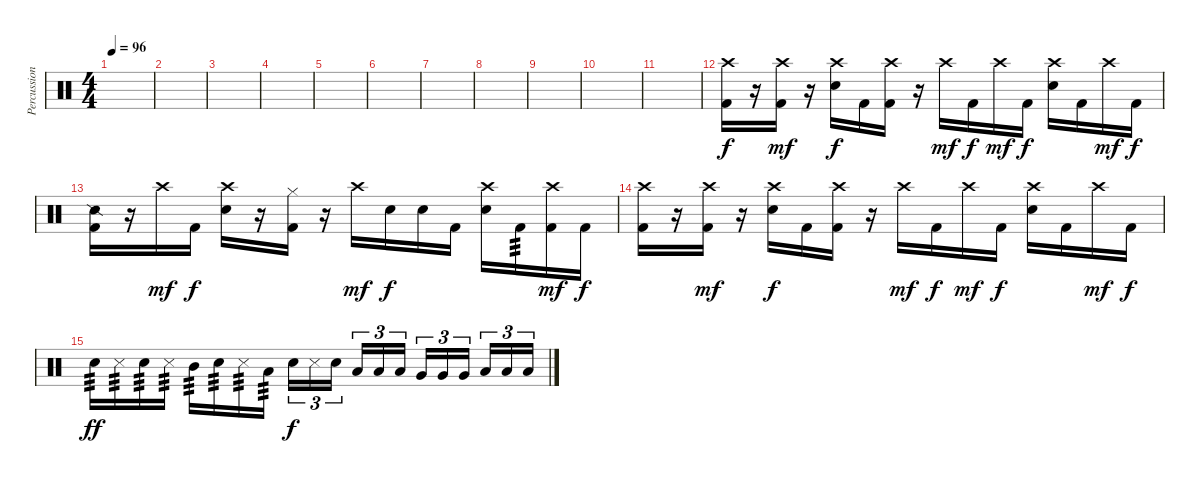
\track ("Percussion" "Percussion") {instrument percussion}
\staff {score}
\articulation defaults
\ts (4 4)
\tempo 96
\clef neutral
\ks c
|
|
|
|
|
|
|
|
|
|
|
("Crash high (hit)" "Kick (hit) 2").16 r.16 ("Crash high (hit)" "Kick (hit) 2").16{dy mf} r.16 ("Crash high (hit)" "Snare (hit) 2").16{dy f} "Kick (hit) 2".16 ("Crash high (hit)" "Kick (hit) 2").16 r.16 "Crash high (hit)".16{dy mf} "Kick (hit) 2".16{dy f} "Crash high (hit)".16{dy mf} "Kick (hit) 2".16{dy f} ("Crash high (hit)" "Snare (hit) 2").16 "Kick (hit) 2".16 "Crash high (hit)".16{dy mf} "Kick (hit) 2".16{dy f} |
("Snare (side stick) 2" "Kick (hit) 2").16 r.16 "Crash high (hit)".16{dy mf} "Kick (hit) 2".16{dy f} ("Crash high (hit)" "Snare (hit) 2").16 r.16 ("Hi-Hat (closed)" "Kick (hit) 2").16 r.16 "Crash high (hit)".16{dy mf} "Snare (hit) 2".16{dy f} "Snare (hit)".16 "Kick (hit) 2".16 ("Crash high (hit)" "Snare (hit) 2").16 "Kick (hit) 2".16{tp 3} ("Crash high (hit)" "Kick (hit) 2").16{dy mf} "Kick (hit) 2".16{dy f} |
("Crash high (hit)" "Kick (hit) 2").16 r.16 ("Crash high (hit)" "Kick (hit) 2").16{dy mf} r.16 ("Crash high (hit)" "Snare (hit) 2").16{dy f} "Kick (hit) 2".16 ("Crash high (hit)" "Kick (hit) 2").16 r.16 "Crash high (hit)".16{dy mf} "Kick (hit) 2".16{dy f} "Crash high (hit)".16{dy mf} "Kick (hit) 2".16{dy f} ("Crash high (hit)" "Snare (hit) 2").16 "Kick (hit) 2".16 "Crash high (hit)".16{dy mf} "Kick (hit) 2".16{dy f} |
"Snare (hit) 2".16{tp 3 dy ff} "Metronome (hit)".16{tp 3} "Snare (hit) 2".16{tp 3} "Metronome (hit)".16{tp 3} "Mid Tom (hit)".16{tp 3} "Snare (hit) 2".16{tp 3} "Metronome (hit)".16{tp 3} "Low Tom (hit)".16{tp 3} "Snare (hit) 2".16{tu (3 2) dy f} "Metronome (hit)".16{tu (3 2)} "Snare (hit) 2".16{tu (3 2) beam splitsecondary} "Low Tom (hit)".16{tu (3 2)} "Low Tom (hit)".16{tu (3 2)} "Low Tom (hit)".16{tu (3 2)} "Very Low Tom (hit)".16{tu (3 2)} "Very Low Tom (hit)".16{tu (3 2)} "Very Low Tom (hit)".16{tu (3 2) beam splitsecondary} "Low Floor Tom (hit)".16{tu (3 2)} "Low Floor Tom (hit)".16{tu (3 2)} "Low Floor Tom (hit)".16{tu (3 2)}
